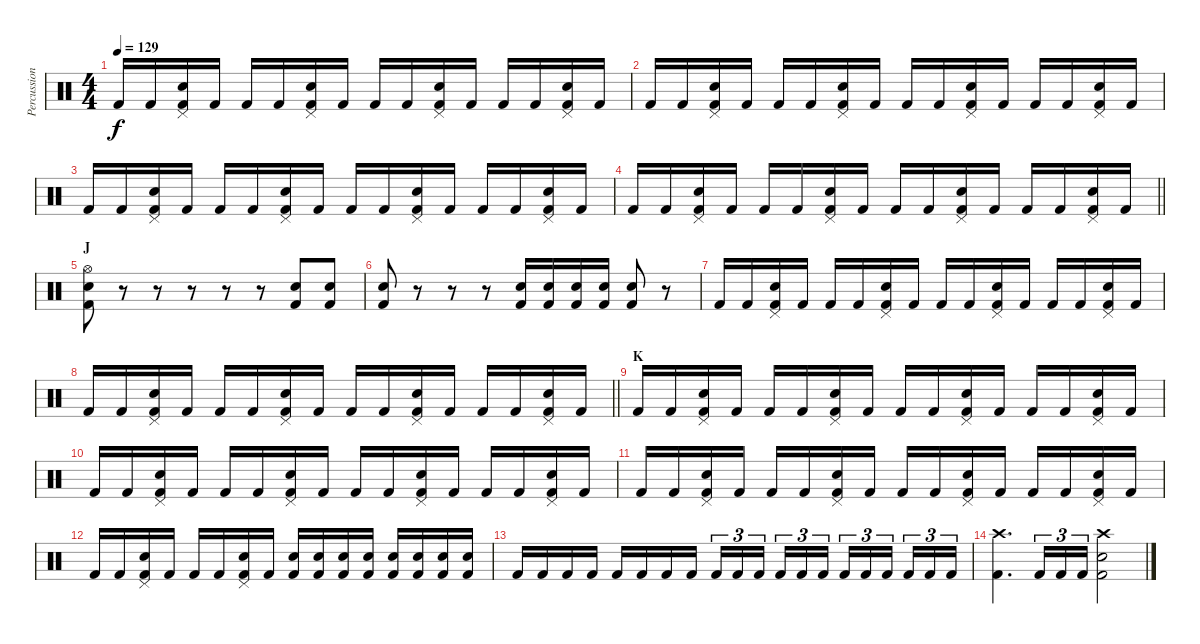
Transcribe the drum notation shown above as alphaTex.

\track ("Percussion" "Percussion") {instrument percussion}
\staff {score}
\articulation defaults
\ts (4 4)
\tempo 129
\clef neutral
\ks c "Kick (hit) 2".16{dy f} "Kick (hit) 2".16
("Pedal Hi-Hat (hit)" "Snare (hit) 2" "Kick (hit) 2").16 "Kick (hit) 2".16 "Kick (hit) 2".16 "Kick (hit) 2".16 ("Pedal Hi-Hat (hit)" "Snare (hit) 2" "Kick (hit) 2").16 "Kick (hit) 2".16 "Kick (hit) 2".16 "Kick (hit) 2".16 ("Pedal Hi-Hat (hit)" "Snare (hit) 2" "Kick (hit) 2").16 "Kick (hit) 2".16 "Kick (hit) 2".16 "Kick (hit) 2".16 ("Pedal Hi-Hat (hit)" "Snare (hit) 2" "Kick (hit) 2").16 "Kick (hit) 2".16 |
"Kick (hit) 2".16 "Kick (hit) 2".16 ("Pedal Hi-Hat (hit)" "Snare (hit) 2" "Kick (hit) 2").16 "Kick (hit) 2".16 "Kick (hit) 2".16 "Kick (hit) 2".16 ("Pedal Hi-Hat (hit)" "Snare (hit) 2" "Kick (hit) 2").16 "Kick (hit) 2".16 "Kick (hit) 2".16 "Kick (hit) 2".16 ("Pedal Hi-Hat (hit)" "Snare (hit) 2" "Kick (hit) 2").16 "Kick (hit) 2".16 "Kick (hit) 2".16 "Kick (hit) 2".16 ("Pedal Hi-Hat (hit)" "Snare (hit) 2" "Kick (hit) 2").16 "Kick (hit) 2".16 |
"Kick (hit) 2".16 "Kick (hit) 2".16 ("Pedal Hi-Hat (hit)" "Snare (hit) 2" "Kick (hit) 2").16 "Kick (hit) 2".16 "Kick (hit) 2".16 "Kick (hit) 2".16 ("Pedal Hi-Hat (hit)" "Snare (hit) 2" "Kick (hit) 2").16 "Kick (hit) 2".16 "Kick (hit) 2".16 "Kick (hit) 2".16 ("Pedal Hi-Hat (hit)" "Snare (hit) 2" "Kick (hit) 2").16 "Kick (hit) 2".16 "Kick (hit) 2".16 "Kick (hit) 2".16 ("Pedal Hi-Hat (hit)" "Snare (hit) 2" "Kick (hit) 2").16 "Kick (hit) 2".16 |
\barLineRight lightlight "Kick (hit) 2".16 "Kick (hit) 2".16
("Pedal Hi-Hat (hit)" "Snare (hit) 2" "Kick (hit) 2").16 "Kick (hit) 2".16 "Kick (hit) 2".16 "Kick (hit) 2".16 ("Pedal Hi-Hat (hit)" "Snare (hit) 2" "Kick (hit) 2").16 "Kick (hit) 2".16 "Kick (hit) 2".16 "Kick (hit) 2".16 ("Pedal Hi-Hat (hit)" "Snare (hit) 2" "Kick (hit) 2").16 "Kick (hit) 2".16 "Kick (hit) 2".16 "Kick (hit) 2".16 ("Pedal Hi-Hat (hit)" "Snare (hit) 2" "Kick (hit) 2").16 "Kick (hit) 2".16 |
\section ("" "J")
("Hi-Hat (open)" "Snare (hit) 2" "Kick (hit) 2").8 r.8 r.8 r.8 r.8 r.8 ("Snare (hit) 2" "Kick (hit) 2").8 ("Snare (hit) 2" "Kick (hit) 2").8 |
("Snare (hit) 2" "Kick (hit) 2").8 r.8 r.8 r.8 ("Snare (hit) 2" "Kick (hit) 2").16 ("Snare (hit) 2" "Kick (hit) 2").16 ("Snare (hit) 2" "Kick (hit) 2").16 ("Snare (hit) 2" "Kick (hit) 2").16 ("Snare (hit) 2" "Kick (hit) 2").8 r.8 |
"Kick (hit) 2".16 "Kick (hit) 2".16 ("Pedal Hi-Hat (hit)" "Snare (hit) 2" "Kick (hit) 2").16 "Kick (hit) 2".16 "Kick (hit) 2".16 "Kick (hit) 2".16 ("Pedal Hi-Hat (hit)" "Snare (hit) 2" "Kick (hit) 2").16 "Kick (hit) 2".16 "Kick (hit) 2".16 "Kick (hit) 2".16 ("Pedal Hi-Hat (hit)" "Snare (hit) 2" "Kick (hit) 2").16 "Kick (hit) 2".16 "Kick (hit) 2".16 "Kick (hit) 2".16 ("Pedal Hi-Hat (hit)" "Snare (hit) 2" "Kick (hit) 2").16 "Kick (hit) 2".16 |
\barLineRight lightlight "Kick (hit) 2".16 "Kick (hit) 2".16
("Pedal Hi-Hat (hit)" "Snare (hit) 2" "Kick (hit) 2").16 "Kick (hit) 2".16 "Kick (hit) 2".16 "Kick (hit) 2".16 ("Pedal Hi-Hat (hit)" "Snare (hit) 2" "Kick (hit) 2").16 "Kick (hit) 2".16 "Kick (hit) 2".16 "Kick (hit) 2".16 ("Pedal Hi-Hat (hit)" "Snare (hit) 2" "Kick (hit) 2").16 "Kick (hit) 2".16 "Kick (hit) 2".16 "Kick (hit) 2".16 ("Pedal Hi-Hat (hit)" "Snare (hit) 2" "Kick (hit) 2").16 "Kick (hit) 2".16 |
\section ("" "K")
"Kick (hit) 2".16 "Kick (hit) 2".16 ("Pedal Hi-Hat (hit)" "Snare (hit) 2" "Kick (hit) 2").16 "Kick (hit) 2".16 "Kick (hit) 2".16 "Kick (hit) 2".16 ("Pedal Hi-Hat (hit)" "Snare (hit) 2" "Kick (hit) 2").16 "Kick (hit) 2".16 "Kick (hit) 2".16 "Kick (hit) 2".16 ("Pedal Hi-Hat (hit)" "Snare (hit) 2" "Kick (hit) 2").16 "Kick (hit) 2".16 "Kick (hit) 2".16 "Kick (hit) 2".16 ("Pedal Hi-Hat (hit)" "Snare (hit) 2" "Kick (hit) 2").16 "Kick (hit) 2".16 |
"Kick (hit) 2".16 "Kick (hit) 2".16 ("Pedal Hi-Hat (hit)" "Snare (hit) 2" "Kick (hit) 2").16 "Kick (hit) 2".16 "Kick (hit) 2".16 "Kick (hit) 2".16 ("Pedal Hi-Hat (hit)" "Snare (hit) 2" "Kick (hit) 2").16 "Kick (hit) 2".16 "Kick (hit) 2".16 "Kick (hit) 2".16 ("Pedal Hi-Hat (hit)" "Snare (hit) 2" "Kick (hit) 2").16 "Kick (hit) 2".16 "Kick (hit) 2".16 "Kick (hit) 2".16 ("Pedal Hi-Hat (hit)" "Snare (hit) 2" "Kick (hit) 2").16 "Kick (hit) 2".16 |
"Kick (hit) 2".16 "Kick (hit) 2".16 ("Pedal Hi-Hat (hit)" "Snare (hit) 2" "Kick (hit) 2").16 "Kick (hit) 2".16 "Kick (hit) 2".16 "Kick (hit) 2".16 ("Pedal Hi-Hat (hit)" "Snare (hit) 2" "Kick (hit) 2").16 "Kick (hit) 2".16 "Kick (hit) 2".16 "Kick (hit) 2".16 ("Pedal Hi-Hat (hit)" "Snare (hit) 2" "Kick (hit) 2").16 "Kick (hit) 2".16 "Kick (hit) 2".16 "Kick (hit) 2".16 ("Pedal Hi-Hat (hit)" "Snare (hit) 2" "Kick (hit) 2").16 "Kick (hit) 2".16 |
"Kick (hit) 2".16 "Kick (hit) 2".16 ("Pedal Hi-Hat (hit)" "Snare (hit) 2" "Kick (hit) 2").16 "Kick (hit) 2".16 "Kick (hit) 2".16 "Kick (hit) 2".16 ("Pedal Hi-Hat (hit)" "Snare (hit) 2" "Kick (hit) 2").16 "Kick (hit) 2".16 ("Snare (hit) 2" "Kick (hit) 2").16 ("Snare (hit) 2" "Kick (hit) 2").16 ("Snare (hit) 2" "Kick (hit) 2").16 ("Snare (hit) 2" "Kick (hit) 2").16 ("Snare (hit) 2" "Kick (hit) 2").16 ("Snare (hit) 2" "Kick (hit) 2").16 ("Snare (hit) 2" "Kick (hit) 2").16 ("Snare (hit) 2" "Kick (hit) 2").16 |
"Kick (hit) 2".16 "Kick (hit) 2".16 "Kick (hit) 2".16 "Kick (hit) 2".16 "Kick (hit) 2".16 "Kick (hit) 2".16 "Kick (hit) 2".16 "Kick (hit) 2".16 "Kick (hit) 2".16{tu (3 2)} "Kick (hit) 2".16{tu (3 2)} "Kick (hit) 2".16{tu (3 2) beam splitsecondary} "Kick (hit) 2".16{tu (3 2)} "Kick (hit) 2".16{tu (3 2)} "Kick (hit) 2".16{tu (3 2)} "Kick (hit) 2".16{tu (3 2)} "Kick (hit) 2".16{tu (3 2)} "Kick (hit) 2".16{tu (3 2) beam splitsecondary} "Kick (hit) 2".16{tu (3 2)} "Kick (hit) 2".16{tu (3 2)} "Kick (hit) 2".16{tu (3 2)} |
("Crash high (hit)" "Kick (hit) 2").4{d} "Kick (hit) 2".16{tu (3 2)} "Kick (hit) 2".16{tu (3 2)} "Kick (hit) 2".16{tu (3 2)} ("Crash high (hit)" "Snare (hit) 2" "Kick (hit) 2").2
